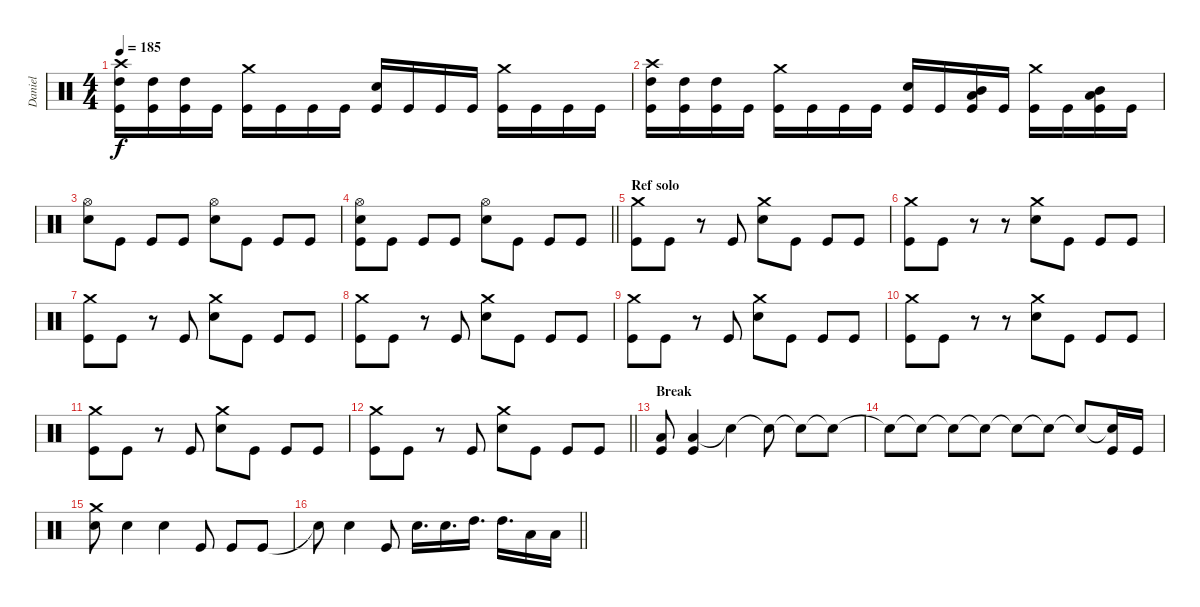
\track ("Daniel" "Daniel") {instrument percussion}
\staff {score}
\articulation defaults
\ts (4 4)
\tempo 185
\clef neutral
\ks c
("Crash high (hit)" "High Tom (hit)" "Kick (hit)").16{dy f} ("High Tom (hit)" "Kick (hit)").16 ("High Tom (hit)" "Kick (hit)").16 "Kick (hit)".16 ("Crash medium (hit)" "Kick (hit)").16 "Kick (hit)".16 "Kick (hit)".16 "Kick (hit)".16 ("Electric Snare (hit)" "Kick (hit)").16 "Kick (hit)".16 "Kick (hit)".16 "Kick (hit)".16 ("Crash medium (hit)" "Kick (hit)").16 "Kick (hit)".16 "Kick (hit)".16 "Kick (hit)".16 |
("Crash high (hit)" "High Tom (hit)" "Kick (hit)").16 ("High Tom (hit)" "Kick (hit)").16 ("High Tom (hit)" "Kick (hit)").16 "Kick (hit)".16 ("Crash medium (hit)" "Kick (hit)").16 "Kick (hit)".16 "Kick (hit)".16 "Kick (hit)".16 ("Electric Snare (hit)" "Kick (hit)").16 "Kick (hit)".16 ("Mid Tom (hit)" "Low Tom (hit)" "Kick (hit)").16 "Kick (hit)".16 ("Crash medium (hit)" "Kick (hit)").16 "Kick (hit)".16 ("Mid Tom (hit)" "Low Tom (hit)" "Kick (hit)").16 "Kick (hit)".16 |
("Hi-Hat (open)" "Electric Snare (hit)").8 "Kick (hit)".8 "Kick (hit)".8 "Kick (hit)".8 ("Hi-Hat (open)" "Electric Snare (hit)").8 "Kick (hit)".8 "Kick (hit)".8 "Kick (hit)".8 |
\barLineRight lightlight
("Hi-Hat (open)" "Electric Snare (hit)" "Kick (hit)").8 "Kick (hit)".8 "Kick (hit)".8 "Kick (hit)".8 ("Hi-Hat (open)" "Electric Snare (hit)").8 "Kick (hit)".8 "Kick (hit)".8 "Kick (hit)".8 |
\section ("" "Ref solo")
("Crash medium (hit)" "Kick (hit)").8 "Kick (hit)".8 r.8 "Kick (hit)".8 ("Crash medium (hit)" "Electric Snare (hit)").8 "Kick (hit)".8 "Kick (hit)".8 "Kick (hit)".8 |
("Crash medium (hit)" "Kick (hit)").8 "Kick (hit)".8 r.8 r.8 ("Crash medium (hit)" "Electric Snare (hit)").8 "Kick (hit)".8 "Kick (hit)".8 "Kick (hit)".8 |
("Crash medium (hit)" "Kick (hit)").8 "Kick (hit)".8 r.8 "Kick (hit)".8 ("Crash medium (hit)" "Electric Snare (hit)").8 "Kick (hit)".8 "Kick (hit)".8 "Kick (hit)".8 |
("Crash medium (hit)" "Kick (hit)").8 "Kick (hit)".8 r.8 "Kick (hit)".8 ("Crash medium (hit)" "Electric Snare (hit)").8 "Kick (hit)".8 "Kick (hit)".8 "Kick (hit)".8 |
("Crash medium (hit)" "Kick (hit)").8 "Kick (hit)".8 r.8 "Kick (hit)".8 ("Crash medium (hit)" "Electric Snare (hit)").8 "Kick (hit)".8 "Kick (hit)".8 "Kick (hit)".8 |
("Crash medium (hit)" "Kick (hit)").8 "Kick (hit)".8 r.8 r.8 ("Crash medium (hit)" "Electric Snare (hit)").8 "Kick (hit)".8 "Kick (hit)".8 "Kick (hit)".8 |
("Crash medium (hit)" "Kick (hit)").8 "Kick (hit)".8 r.8 "Kick (hit)".8 ("Crash medium (hit)" "Electric Snare (hit)").8 "Kick (hit)".8 "Kick (hit)".8 "Kick (hit)".8 |
\barLineRight lightlight
("Crash medium (hit)" "Kick (hit)").8 "Kick (hit)".8 r.8 "Kick (hit)".8 ("Crash medium (hit)" "Electric Snare (hit)").8 "Kick (hit)".8 "Kick (hit)".8 "Kick (hit)".8 |
\section ("" "Break")
("Low Tom (hit)" "Kick (hit)").8 ("Low Tom (hit)" "Kick (hit)").4 "Snare (hit)"{t}.4 "Snare (hit)"{t}.8 "Snare (hit)"{t}.8 "Snare (hit)"{t}.8 |
"Snare (hit)"{t}.8 "Snare (hit)"{t}.8 "Snare (hit)"{t}.8 "Snare (hit)"{t}.8 "Snare (hit)"{t}.8 "Snare (hit)"{t}.8 "Snare (hit)"{t}.8 ("Snare (hit)"{t} "Kick (hit)").16 "Kick (hit)".16 |
("Crash medium (hit)" "Electric Snare (hit)").8 "Electric Snare (hit)".4 "Electric Snare (hit)".4 "Kick (hit)".8 "Kick (hit)".8 "Kick (hit)".8 |
\barLineRight lightlight "Snare (hit)"{t}.8 "Electric Snare (hit)".4 "Kick (hit)".8 "Electric Snare (hit)".16{d} "Electric Snare (hit)".16{d} "High Tom (hit)".16{d} "High Tom (hit)".16{d} "Low Tom (hit)".16 "Low Tom (hit)".16
